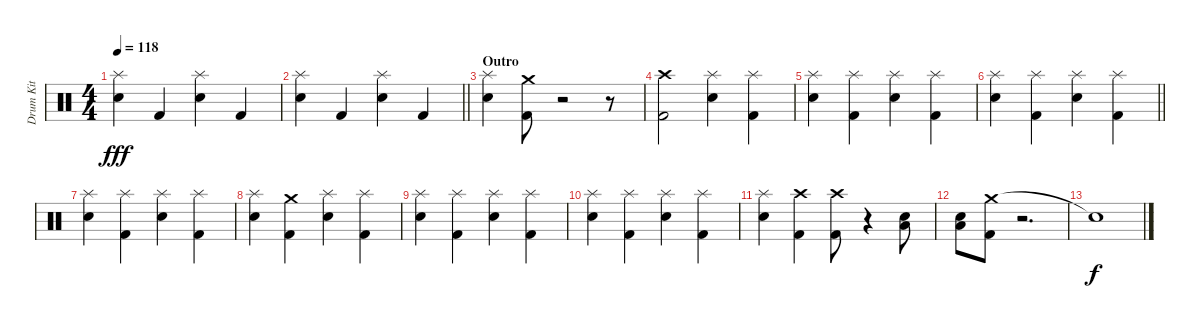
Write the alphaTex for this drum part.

\track ("Drum Kit" "Drum Kit") {instrument percussion}
\staff {score}
\articulation defaults
\ts (4 4)
\tempo 118
\clef neutral
\ks c
("Electric Snare (hit)" "Splash (hit)").4{dy fff} "Kick (hit) 2".4 ("Electric Snare (hit)" "Splash (hit)").4 "Kick (hit) 2".4 |
\barLineRight lightlight
("Splash (hit)" "Electric Snare (hit)").4 "Kick (hit) 2".4 ("Electric Snare (hit)" "Splash (hit)").4 "Kick (hit) 2".4 |
\section ("" "Outro")
("Electric Snare (hit)" "Splash (hit)").4 ("Crash medium (hit)" "Kick (hit) 2").8 r.2 r.8 |
("Crash high (hit)" "Kick (hit) 2").2 ("Splash (hit)" "Electric Snare (hit)").4 ("Kick (hit) 2" "Splash (hit)").4 |
("Electric Snare (hit)" "Splash (hit)").4 ("Kick (hit) 2" "Splash (hit)").4 ("Electric Snare (hit)" "Splash (hit)").4 ("Splash (hit)" "Kick (hit) 2").4 |
\barLineRight lightlight
("Splash (hit)" "Electric Snare (hit)").4 ("Kick (hit) 2" "Splash (hit)").4 ("Electric Snare (hit)" "Splash (hit)").4 ("Kick (hit) 2" "Splash (hit)").4 |
("Splash (hit)" "Electric Snare (hit)").4 ("Splash (hit)" "Kick (hit) 2").4 ("Splash (hit)" "Electric Snare (hit)").4 ("Kick (hit) 2" "Splash (hit)").4 |
("Electric Snare (hit)" "Splash (hit)").4 ("Crash medium (hit)" "Kick (hit) 2").4 ("Electric Snare (hit)" "Splash (hit)").4 ("Splash (hit)" "Kick (hit) 2").4 |
("Splash (hit)" "Electric Snare (hit)").4 ("Splash (hit)" "Kick (hit) 2").4 ("Splash (hit)" "Electric Snare (hit)").4 ("Kick (hit) 2" "Splash (hit)").4 |
("Splash (hit)" "Electric Snare (hit)").4 ("Splash (hit)" "Kick (hit) 2").4 ("Electric Snare (hit)" "Splash (hit)").4 ("Kick (hit) 2" "Splash (hit)").4 |
("Electric Snare (hit)" "Splash (hit)").4 ("Kick (hit) 2" "Crash high (hit)").4 ("Crash high (hit)" "Kick (hit) 2").8 r.4 ("Low Floor Tom (hit)" "Electric Snare (hit)").8 |
("Low Floor Tom (hit)" "Electric Snare (hit)").8 ("Crash medium (hit)" "Kick (hit) 2").8 r.2{d} |
"Snare (hit)"{t}.1{dy f}
